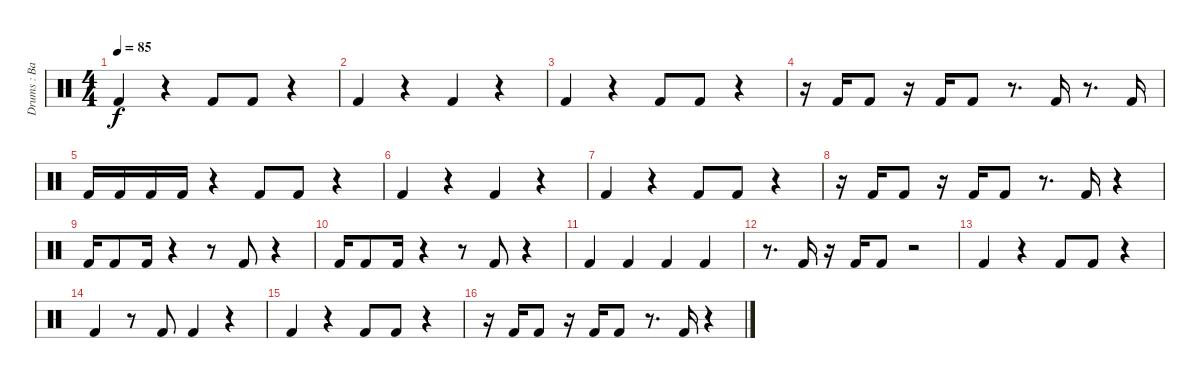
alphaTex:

\track ("Drums : Bass Drums" "Drums : Ba") {instrument percussion}
\staff {score}
\articulation defaults
\ts (4 4)
\tempo 85
\clef neutral
\ks c "Kick (hit) 2".4{dy f}
r.4 "Kick (hit) 2".8 "Kick (hit) 2".8 r.4 |
"Kick (hit) 2".4 r.4 "Kick (hit) 2".4 r.4 |
"Kick (hit) 2".4 r.4 "Kick (hit) 2".8 "Kick (hit) 2".8 r.4 |
r.16 "Kick (hit) 2".16 "Kick (hit) 2".8 r.16 "Kick (hit) 2".16 "Kick (hit) 2".8 r.8{d} "Kick (hit) 2".16 r.8{d} "Kick (hit) 2".16 |
"Kick (hit) 2".16 "Kick (hit) 2".16 "Kick (hit) 2".16 "Kick (hit) 2".16 r.4 "Kick (hit) 2".8 "Kick (hit) 2".8 r.4 |
"Kick (hit) 2".4 r.4 "Kick (hit) 2".4 r.4 |
"Kick (hit) 2".4 r.4 "Kick (hit) 2".8 "Kick (hit) 2".8 r.4 |
r.16 "Kick (hit) 2".16 "Kick (hit) 2".8 r.16 "Kick (hit) 2".16 "Kick (hit) 2".8 r.8{d} "Kick (hit) 2".16 r.4 |
"Kick (hit) 2".16 "Kick (hit) 2".8 "Kick (hit) 2".16 r.4 r.8 "Kick (hit) 2".8 r.4 |
"Kick (hit) 2".16 "Kick (hit) 2".8 "Kick (hit) 2".16 r.4 r.8 "Kick (hit) 2".8 r.4 |
"Kick (hit) 2".4 "Kick (hit) 2".4 "Kick (hit) 2".4 "Kick (hit) 2".4 |
r.8{d} "Kick (hit) 2".16 r.16 "Kick (hit) 2".16 "Kick (hit) 2".8 r.2 |
"Kick (hit) 2".4 r.4 "Kick (hit) 2".8 "Kick (hit) 2".8 r.4 |
"Kick (hit) 2".4 r.8 "Kick (hit) 2".8 "Kick (hit) 2".4 r.4 |
"Kick (hit) 2".4 r.4 "Kick (hit) 2".8 "Kick (hit) 2".8 r.4 |
r.16 "Kick (hit) 2".16 "Kick (hit) 2".8 r.16 "Kick (hit) 2".16 "Kick (hit) 2".8 r.8{d} "Kick (hit) 2".16 r.4
